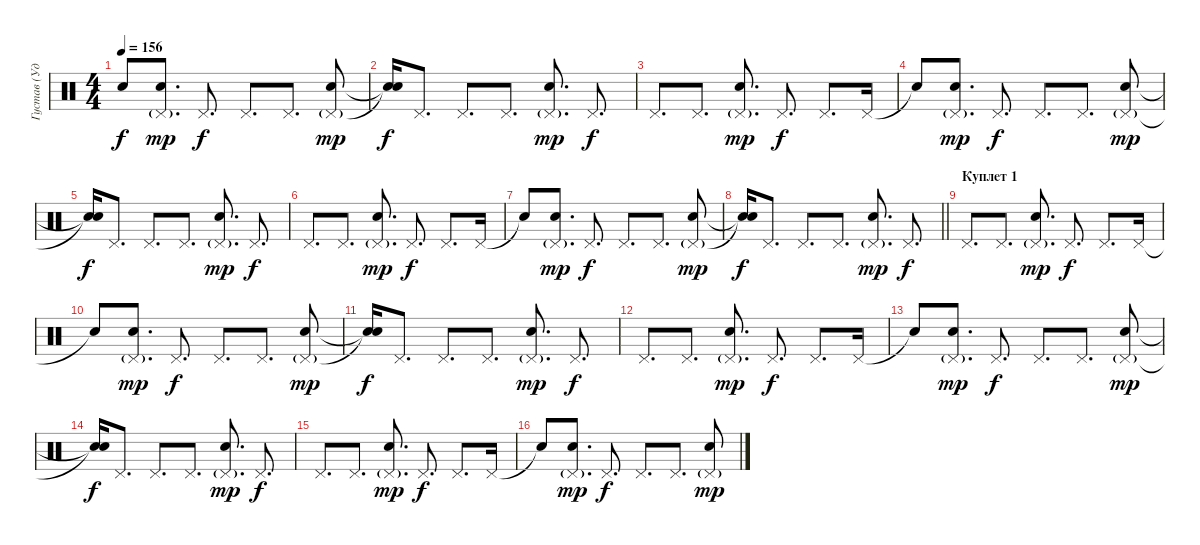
\track ("Густав (Ударные)" "Густав (Уд") {instrument percussion}
\staff {score}
\articulation defaults
\ts (4 4)
\tempo 156
\clef neutral
\ks c "Snare (hit)"{t}.8{dy f}
("Pedal Hi-Hat (hit)"{g} "Electric Snare (hit)").8{d dy mp} "Pedal Hi-Hat (hit)".8{d dy f} "Pedal Hi-Hat (hit)".8{d} "Pedal Hi-Hat (hit)".8{d} ("Pedal Hi-Hat (hit)"{g} "Electric Snare (hit)").8{dy mp} |
("Snare (hit)"{t} "Snare (hit)"{t}).16{dy f} "Pedal Hi-Hat (hit)".8{d} "Pedal Hi-Hat (hit)".8{d} "Pedal Hi-Hat (hit)".8{d} ("Pedal Hi-Hat (hit)"{g} "Electric Snare (hit)").8{d dy mp} "Pedal Hi-Hat (hit)".8{d dy f} |
"Pedal Hi-Hat (hit)".8{d} "Pedal Hi-Hat (hit)".8{d} ("Pedal Hi-Hat (hit)"{g} "Electric Snare (hit)").8{d dy mp} "Pedal Hi-Hat (hit)".8{d dy f} "Pedal Hi-Hat (hit)".8{d} "Pedal Hi-Hat (hit)".16 |
"Snare (hit)"{t}.8 ("Pedal Hi-Hat (hit)"{g} "Electric Snare (hit)").8{d dy mp} "Pedal Hi-Hat (hit)".8{d dy f} "Pedal Hi-Hat (hit)".8{d} "Pedal Hi-Hat (hit)".8{d} ("Pedal Hi-Hat (hit)"{g} "Electric Snare (hit)").8{dy mp} |
("Snare (hit)"{t} "Snare (hit)"{t}).16{dy f} "Pedal Hi-Hat (hit)".8{d} "Pedal Hi-Hat (hit)".8{d} "Pedal Hi-Hat (hit)".8{d} ("Pedal Hi-Hat (hit)"{g} "Electric Snare (hit)").8{d dy mp} "Pedal Hi-Hat (hit)".8{d dy f} |
"Pedal Hi-Hat (hit)".8{d} "Pedal Hi-Hat (hit)".8{d} ("Pedal Hi-Hat (hit)"{g} "Electric Snare (hit)").8{d dy mp} "Pedal Hi-Hat (hit)".8{d dy f} "Pedal Hi-Hat (hit)".8{d} "Pedal Hi-Hat (hit)".16 |
"Snare (hit)"{t}.8 ("Pedal Hi-Hat (hit)"{g} "Electric Snare (hit)").8{d dy mp} "Pedal Hi-Hat (hit)".8{d dy f} "Pedal Hi-Hat (hit)".8{d} "Pedal Hi-Hat (hit)".8{d} ("Pedal Hi-Hat (hit)"{g} "Electric Snare (hit)").8{dy mp} |
\barLineRight lightlight
("Snare (hit)"{t} "Snare (hit)"{t}).16{dy f} "Pedal Hi-Hat (hit)".8{d} "Pedal Hi-Hat (hit)".8{d} "Pedal Hi-Hat (hit)".8{d} ("Pedal Hi-Hat (hit)"{g} "Electric Snare (hit)").8{d dy mp} "Pedal Hi-Hat (hit)".8{d dy f} |
\section ("" "Куплет 1")
"Pedal Hi-Hat (hit)".8{d} "Pedal Hi-Hat (hit)".8{d} ("Pedal Hi-Hat (hit)"{g} "Electric Snare (hit)").8{d dy mp} "Pedal Hi-Hat (hit)".8{d dy f} "Pedal Hi-Hat (hit)".8{d} "Pedal Hi-Hat (hit)".16 |
"Snare (hit)"{t}.8 ("Pedal Hi-Hat (hit)"{g} "Electric Snare (hit)").8{d dy mp} "Pedal Hi-Hat (hit)".8{d dy f} "Pedal Hi-Hat (hit)".8{d} "Pedal Hi-Hat (hit)".8{d} ("Pedal Hi-Hat (hit)"{g} "Electric Snare (hit)").8{dy mp} |
("Snare (hit)"{t} "Snare (hit)"{t}).16{dy f} "Pedal Hi-Hat (hit)".8{d} "Pedal Hi-Hat (hit)".8{d} "Pedal Hi-Hat (hit)".8{d} ("Pedal Hi-Hat (hit)"{g} "Electric Snare (hit)").8{d dy mp} "Pedal Hi-Hat (hit)".8{d dy f} |
"Pedal Hi-Hat (hit)".8{d} "Pedal Hi-Hat (hit)".8{d} ("Pedal Hi-Hat (hit)"{g} "Electric Snare (hit)").8{d dy mp} "Pedal Hi-Hat (hit)".8{d dy f} "Pedal Hi-Hat (hit)".8{d} "Pedal Hi-Hat (hit)".16 |
"Snare (hit)"{t}.8 ("Pedal Hi-Hat (hit)"{g} "Electric Snare (hit)").8{d dy mp} "Pedal Hi-Hat (hit)".8{d dy f} "Pedal Hi-Hat (hit)".8{d} "Pedal Hi-Hat (hit)".8{d} ("Pedal Hi-Hat (hit)"{g} "Electric Snare (hit)").8{dy mp} |
("Snare (hit)"{t} "Snare (hit)"{t}).16{dy f} "Pedal Hi-Hat (hit)".8{d} "Pedal Hi-Hat (hit)".8{d} "Pedal Hi-Hat (hit)".8{d} ("Pedal Hi-Hat (hit)"{g} "Electric Snare (hit)").8{d dy mp} "Pedal Hi-Hat (hit)".8{d dy f} |
"Pedal Hi-Hat (hit)".8{d} "Pedal Hi-Hat (hit)".8{d} ("Pedal Hi-Hat (hit)"{g} "Electric Snare (hit)").8{d dy mp} "Pedal Hi-Hat (hit)".8{d dy f} "Pedal Hi-Hat (hit)".8{d} "Pedal Hi-Hat (hit)".16 |
"Snare (hit)"{t}.8 ("Pedal Hi-Hat (hit)"{g} "Electric Snare (hit)").8{d dy mp} "Pedal Hi-Hat (hit)".8{d dy f} "Pedal Hi-Hat (hit)".8{d} "Pedal Hi-Hat (hit)".8{d} ("Pedal Hi-Hat (hit)"{g} "Electric Snare (hit)").8{dy mp}
